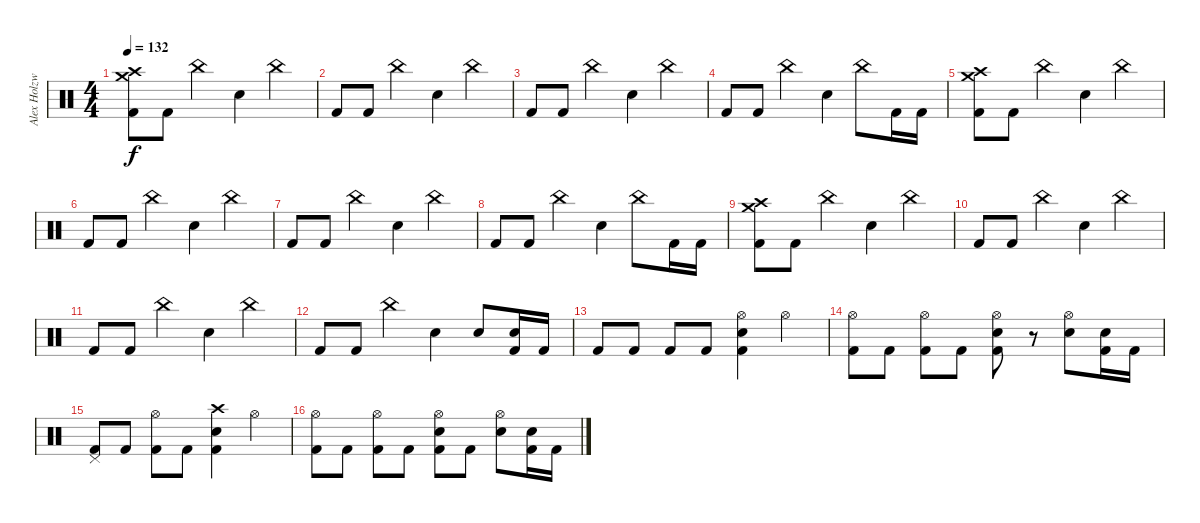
\track ("Alex Holzwarth" "Alex Holzw") {instrument percussion}
\staff {score}
\articulation defaults
\ts (4 4)
\tempo 132
\clef neutral
\ks c
("Crash high (hit)" "Crash medium (hit)" "Kick (hit) 2").8{dy f} "Kick (hit) 2".8 "China (hit)".4 "Snare (hit) 2".4 "China (hit)".4 |
"Kick (hit) 2".8 "Kick (hit) 2".8 "China (hit)".4 "Snare (hit) 2".4 "China (hit)".4 |
"Kick (hit) 2".8 "Kick (hit) 2".8 "China (hit)".4 "Snare (hit) 2".4 "China (hit)".4 |
"Kick (hit) 2".8 "Kick (hit) 2".8 "China (hit)".4 "Snare (hit) 2".4 "China (hit)".8 "Kick (hit) 2".16 "Kick (hit) 2".16 |
("Crash high (hit)" "Crash medium (hit)" "Kick (hit) 2").8 "Kick (hit) 2".8 "China (hit)".4 "Snare (hit) 2".4 "China (hit)".4 |
"Kick (hit) 2".8 "Kick (hit) 2".8 "China (hit)".4 "Snare (hit) 2".4 "China (hit)".4 |
"Kick (hit) 2".8 "Kick (hit) 2".8 "China (hit)".4 "Snare (hit) 2".4 "China (hit)".4 |
"Kick (hit) 2".8 "Kick (hit) 2".8 "China (hit)".4 "Snare (hit) 2".4 "China (hit)".8 "Kick (hit) 2".16 "Kick (hit) 2".16 |
("Crash high (hit)" "Crash medium (hit)" "Kick (hit) 2").8 "Kick (hit) 2".8 "China (hit)".4 "Snare (hit) 2".4 "China (hit)".4 |
"Kick (hit) 2".8 "Kick (hit) 2".8 "China (hit)".4 "Snare (hit) 2".4 "China (hit)".4 |
"Kick (hit) 2".8 "Kick (hit) 2".8 "China (hit)".4 "Snare (hit) 2".4 "China (hit)".4 |
"Kick (hit) 2".8 "Kick (hit) 2".8 "China (hit)".4 "Snare (hit) 2".4 "Snare (hit) 2".8 ("Snare (hit) 2" "Kick (hit) 2").16 "Kick (hit) 2".16 |
"Kick (hit) 2".8 "Kick (hit) 2".8 "Kick (hit) 2".8 "Kick (hit) 2".8 ("Hi-Hat (open)" "Snare (hit) 2" "Kick (hit) 2").4 "Hi-Hat (open)".4 |
("Hi-Hat (open)" "Kick (hit) 2").8 "Kick (hit) 2".8 ("Hi-Hat (open)" "Kick (hit) 2").8 "Kick (hit) 2".8 ("Hi-Hat (open)" "Snare (hit) 2" "Kick (hit) 2").8 r.8 ("Hi-Hat (open)" "Snare (hit) 2").8 ("Snare (hit) 2" "Kick (hit) 2").16 "Kick (hit) 2".16 |
("Pedal Hi-Hat (hit)" "Kick (hit) 2").8 "Kick (hit) 2".8 ("Hi-Hat (open)" "Kick (hit) 2").8 "Kick (hit) 2".8 ("Crash high (hit)" "Snare (hit) 2" "Kick (hit) 2").4 "Hi-Hat (open)".4 |
("Hi-Hat (open)" "Kick (hit) 2").8 "Kick (hit) 2".8 ("Hi-Hat (open)" "Kick (hit) 2").8 "Kick (hit) 2".8 ("Hi-Hat (open)" "Snare (hit) 2" "Kick (hit) 2").8 "Kick (hit) 2".8 ("Hi-Hat (open)" "Snare (hit) 2").8 ("Snare (hit) 2" "Kick (hit) 2").16 "Kick (hit) 2".16
